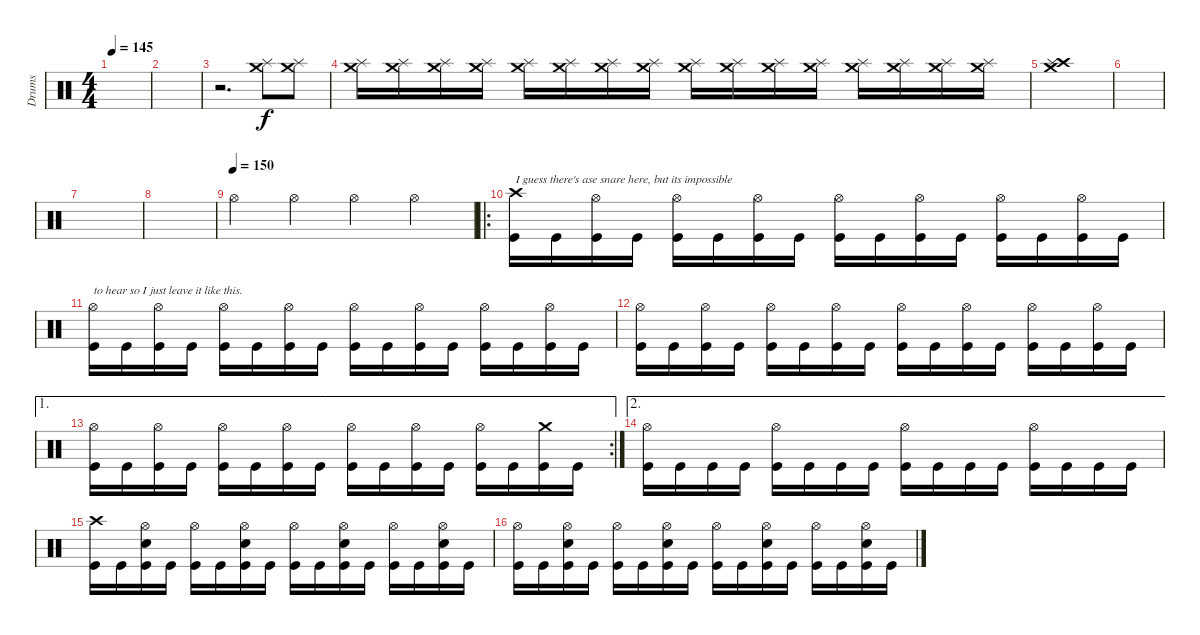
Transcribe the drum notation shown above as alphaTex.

\track ("Drums" "Drums") {instrument percussion}
\staff {score}
\articulation defaults
\ts (4 4)
\tempo 145
\clef neutral
\ks c
|
|
r.2{d} ("Crash medium (hit)" "Splash (hit)").8{volume 1} ("Crash medium (hit)" "Splash (hit)").8{volume 2} |
("Crash medium (hit)" "Splash (hit)").16{volume 3} ("Crash medium (hit)" "Splash (hit)").16{volume 4} ("Crash medium (hit)" "Splash (hit)").16{volume 5} ("Crash medium (hit)" "Splash (hit)").16{volume 6} ("Crash medium (hit)" "Splash (hit)").16{volume 7} ("Crash medium (hit)" "Splash (hit)").16{volume 8} ("Crash medium (hit)" "Splash (hit)").16{volume 9} ("Crash medium (hit)" "Splash (hit)").16{volume 10} ("Crash medium (hit)" "Splash (hit)").16 ("Crash medium (hit)" "Splash (hit)").16 ("Crash medium (hit)" "Splash (hit)").16 ("Crash medium (hit)" "Splash (hit)").16 ("Crash medium (hit)" "Splash (hit)").16 ("Crash medium (hit)" "Splash (hit)").16 ("Crash medium (hit)" "Splash (hit)").16 ("Crash medium (hit)" "Splash (hit)").16 |
("Crash high (hit)" "Crash medium (hit)" "Splash (hit)").1 |
|
|
|
\tempo (150)
"Hi-Hat (open)".4 "Hi-Hat (open)".4 "Hi-Hat (open)".4 "Hi-Hat (open)".4 |
\ro
("Crash high (hit)" "Kick (hit)").16{txt "I guess there's ase snare here, but its impossible"} "Kick (hit)".16 ("Hi-Hat (open)" "Kick (hit)").16 "Kick (hit)".16 ("Hi-Hat (open)" "Kick (hit)").16 "Kick (hit)".16 ("Hi-Hat (open)" "Kick (hit)").16 "Kick (hit)".16 ("Hi-Hat (open)" "Kick (hit)").16 "Kick (hit)".16 ("Hi-Hat (open)" "Kick (hit)").16 "Kick (hit)".16 ("Hi-Hat (open)" "Kick (hit)").16 "Kick (hit)".16 ("Hi-Hat (open)" "Kick (hit)").16 "Kick (hit)".16 |
("Hi-Hat (open)" "Kick (hit)").16{txt "to hear so I just leave it like this."} "Kick (hit)".16 ("Hi-Hat (open)" "Kick (hit)").16 "Kick (hit)".16 ("Hi-Hat (open)" "Kick (hit)").16 "Kick (hit)".16 ("Hi-Hat (open)" "Kick (hit)").16 "Kick (hit)".16 ("Hi-Hat (open)" "Kick (hit)").16 "Kick (hit)".16 ("Hi-Hat (open)" "Kick (hit)").16 "Kick (hit)".16 ("Hi-Hat (open)" "Kick (hit)").16 "Kick (hit)".16 ("Hi-Hat (open)" "Kick (hit)").16 "Kick (hit)".16 |
("Hi-Hat (open)" "Kick (hit)").16 "Kick (hit)".16 ("Hi-Hat (open)" "Kick (hit)").16 "Kick (hit)".16 ("Hi-Hat (open)" "Kick (hit)").16 "Kick (hit)".16 ("Hi-Hat (open)" "Kick (hit)").16 "Kick (hit)".16 ("Hi-Hat (open)" "Kick (hit)").16 "Kick (hit)".16 ("Hi-Hat (open)" "Kick (hit)").16 "Kick (hit)".16 ("Hi-Hat (open)" "Kick (hit)").16 "Kick (hit)".16 ("Hi-Hat (open)" "Kick (hit)").16 "Kick (hit)".16 |
\ae 1
\rc 2
("Hi-Hat (open)" "Kick (hit)").16 "Kick (hit)".16 ("Hi-Hat (open)" "Kick (hit)").16 "Kick (hit)".16 ("Hi-Hat (open)" "Kick (hit)").16 "Kick (hit)".16 ("Hi-Hat (open)" "Kick (hit)").16 "Kick (hit)".16 ("Hi-Hat (open)" "Kick (hit)").16 "Kick (hit)".16 ("Hi-Hat (open)" "Kick (hit)").16 "Kick (hit)".16 ("Hi-Hat (open)" "Kick (hit)").16 "Kick (hit)".16 ("Crash medium (hit)" "Kick (hit)").16 "Kick (hit)".16 |
\ae 2
("Hi-Hat (open)" "Kick (hit)").16 "Kick (hit)".16 "Kick (hit)".16 "Kick (hit)".16 ("Hi-Hat (open)" "Kick (hit)").16 "Kick (hit)".16 "Kick (hit)".16 "Kick (hit)".16 ("Hi-Hat (open)" "Kick (hit)").16 "Kick (hit)".16 "Kick (hit)".16 "Kick (hit)".16 ("Hi-Hat (open)" "Kick (hit)").16 "Kick (hit)".16 "Kick (hit)".16 "Kick (hit)".16 |
("Crash high (hit)" "Kick (hit)").16 "Kick (hit)".16 ("Hi-Hat (open)" "Snare (hit) 2" "Kick (hit)").16 "Kick (hit)".16 ("Hi-Hat (open)" "Kick (hit)").16 "Kick (hit)".16 ("Hi-Hat (open)" "Snare (hit) 2" "Kick (hit)").16 "Kick (hit)".16 ("Hi-Hat (open)" "Kick (hit)").16 "Kick (hit)".16 ("Hi-Hat (open)" "Snare (hit) 2" "Kick (hit)").16 "Kick (hit)".16 ("Hi-Hat (open)" "Kick (hit)").16 "Kick (hit)".16 ("Hi-Hat (open)" "Snare (hit) 2" "Kick (hit)").16 "Kick (hit)".16 |
("Hi-Hat (open)" "Kick (hit)").16 "Kick (hit)".16 ("Hi-Hat (open)" "Snare (hit) 2" "Kick (hit)").16 "Kick (hit)".16 ("Hi-Hat (open)" "Kick (hit)").16 "Kick (hit)".16 ("Hi-Hat (open)" "Snare (hit) 2" "Kick (hit)").16 "Kick (hit)".16 ("Hi-Hat (open)" "Kick (hit)").16 "Kick (hit)".16 ("Hi-Hat (open)" "Snare (hit) 2" "Kick (hit)").16 "Kick (hit)".16 ("Hi-Hat (open)" "Kick (hit)").16 "Kick (hit)".16 ("Hi-Hat (open)" "Snare (hit) 2" "Kick (hit)").16 "Kick (hit)".16
